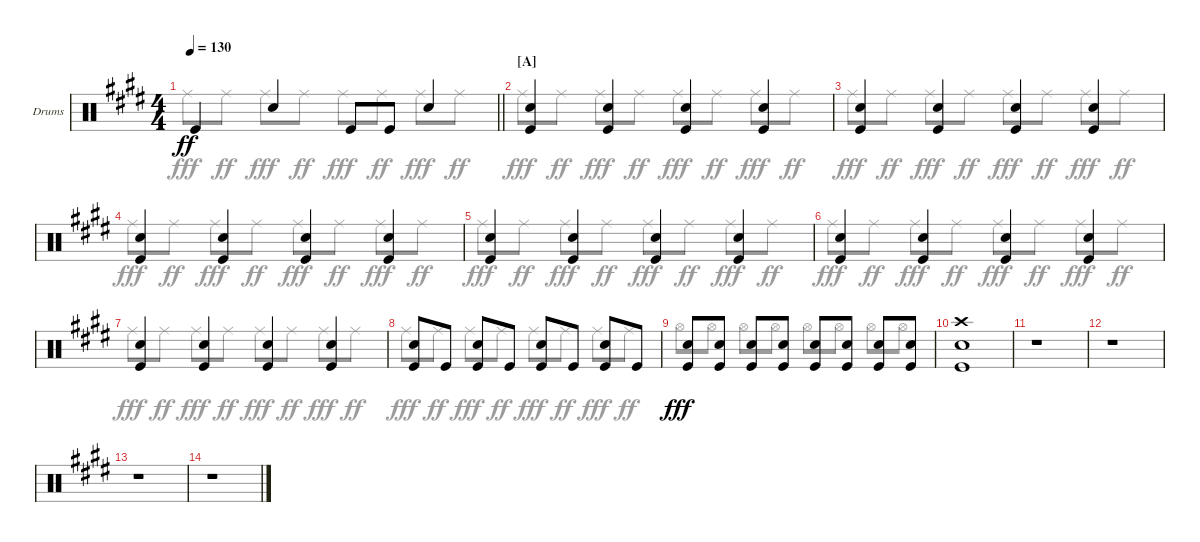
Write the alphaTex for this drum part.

\bracketExtendMode groupsimilarinstruments
\firstSystemTrackNameOrientation horizontal
\otherSystemsTrackNameOrientation horizontal
\track ("Fabrizo Moretti" "Drums") {instrument percussion}
\staff {score}
\articulation defaults
\voice
\ts (4 4)
\tempo 130
\clef neutral
\barLineRight lightlight
\ks e "Kick (hit)".4{dy ff} "Snare (hit) 2".4 "Kick (hit)".8 "Kick (hit)".8 "Snare (hit) 2".4
|
\section ("A" "")
("Snare (hit) 2" "Kick (hit)").4 ("Snare (hit) 2" "Kick (hit)").4 ("Snare (hit) 2" "Kick (hit)").4 ("Snare (hit) 2" "Kick (hit)").4 |
("Snare (hit) 2" "Kick (hit)").4 ("Snare (hit) 2" "Kick (hit)").4 ("Snare (hit) 2" "Kick (hit)").4 ("Snare (hit) 2" "Kick (hit)").4 |
("Snare (hit) 2" "Kick (hit)").4 ("Snare (hit) 2" "Kick (hit)").4 ("Snare (hit) 2" "Kick (hit)").4 ("Snare (hit) 2" "Kick (hit)").4 |
("Snare (hit) 2" "Kick (hit)").4 ("Snare (hit) 2" "Kick (hit)").4 ("Snare (hit) 2" "Kick (hit)").4 ("Snare (hit) 2" "Kick (hit)").4 |
("Snare (hit) 2" "Kick (hit)").4 ("Snare (hit) 2" "Kick (hit)").4 ("Snare (hit) 2" "Kick (hit)").4 ("Snare (hit) 2" "Kick (hit)").4 |
("Snare (hit) 2" "Kick (hit)").4 ("Snare (hit) 2" "Kick (hit)").4 ("Snare (hit) 2" "Kick (hit)").4 ("Snare (hit) 2" "Kick (hit)").4 |
("Snare (hit) 2" "Kick (hit)").8 "Kick (hit)".8 ("Snare (hit) 2" "Kick (hit)").8 "Kick (hit)".8 ("Snare (hit) 2" "Kick (hit)").8 "Kick (hit)".8 ("Snare (hit) 2" "Kick (hit)").8 "Kick (hit)".8 |
("Snare (hit) 2" "Kick (hit)").8{dy fff} ("Snare (hit) 2" "Kick (hit)").8 ("Snare (hit) 2" "Kick (hit)").8 ("Snare (hit) 2" "Kick (hit)").8 ("Snare (hit) 2" "Kick (hit)").8 ("Snare (hit) 2" "Kick (hit)").8 ("Snare (hit) 2" "Kick (hit)").8 ("Snare (hit) 2" "Kick (hit)").8 |
("Crash high (hit)" "Snare (hit) 2" "Kick (hit)").1 |
r.1 |
r.1 |
r.1 |
r.1
\voice
\clef neutral
\ottava regular
\simile none
\barLineRight lightlight
\ks e "Ride (middle)".8{dy fff} "Ride (middle)".8{dy ff} "Ride (middle)".8{dy fff} "Ride (middle)".8{dy ff} "Ride (middle)".8{dy fff} "Ride (middle)".8{dy ff} "Ride (middle)".8{dy fff} "Ride (middle)".8{dy ff}
|
"Ride (middle)".8{dy fff} "Ride (middle)".8{dy ff} "Ride (middle)".8{dy fff} "Ride (middle)".8{dy ff} "Ride (middle)".8{dy fff} "Ride (middle)".8{dy ff} "Ride (middle)".8{dy fff} "Ride (middle)".8{dy ff} |
"Ride (middle)".8{dy fff} "Ride (middle)".8{dy ff} "Ride (middle)".8{dy fff} "Ride (middle)".8{dy ff} "Ride (middle)".8{dy fff} "Ride (middle)".8{dy ff} "Ride (middle)".8{dy fff} "Ride (middle)".8{dy ff} |
"Ride (middle)".8{dy fff} "Ride (middle)".8{dy ff} "Ride (middle)".8{dy fff} "Ride (middle)".8{dy ff} "Ride (middle)".8{dy fff} "Ride (middle)".8{dy ff} "Ride (middle)".8{dy fff} "Ride (middle)".8{dy ff} |
"Ride (middle)".8{dy fff} "Ride (middle)".8{dy ff} "Ride (middle)".8{dy fff} "Ride (middle)".8{dy ff} "Ride (middle)".8{dy fff} "Ride (middle)".8{dy ff} "Ride (middle)".8{dy fff} "Ride (middle)".8{dy ff} |
"Ride (middle)".8{dy fff} "Ride (middle)".8{dy ff} "Ride (middle)".8{dy fff} "Ride (middle)".8{dy ff} "Ride (middle)".8{dy fff} "Ride (middle)".8{dy ff} "Ride (middle)".8{dy fff} "Ride (middle)".8{dy ff} |
"Ride (middle)".8{dy fff} "Ride (middle)".8{dy ff} "Ride (middle)".8{dy fff} "Ride (middle)".8{dy ff} "Ride (middle)".8{dy fff} "Ride (middle)".8{dy ff} "Ride (middle)".8{dy fff} "Ride (middle)".8{dy ff} |
"Ride (middle)".8{dy fff} "Ride (middle)".8{dy ff} "Ride (middle)".8{dy fff} "Ride (middle)".8{dy ff} "Ride (middle)".8{dy fff} "Ride (middle)".8{dy ff} "Ride (middle)".8{dy fff} "Ride (middle)".8{dy ff} |
"Hi-Hat (open)".8 "Hi-Hat (open)".8 "Hi-Hat (open)".8 "Hi-Hat (open)".8 "Hi-Hat (open)".8 "Hi-Hat (open)".8 "Hi-Hat (open)".8 "Hi-Hat (open)".8 |
|
|
|
|
